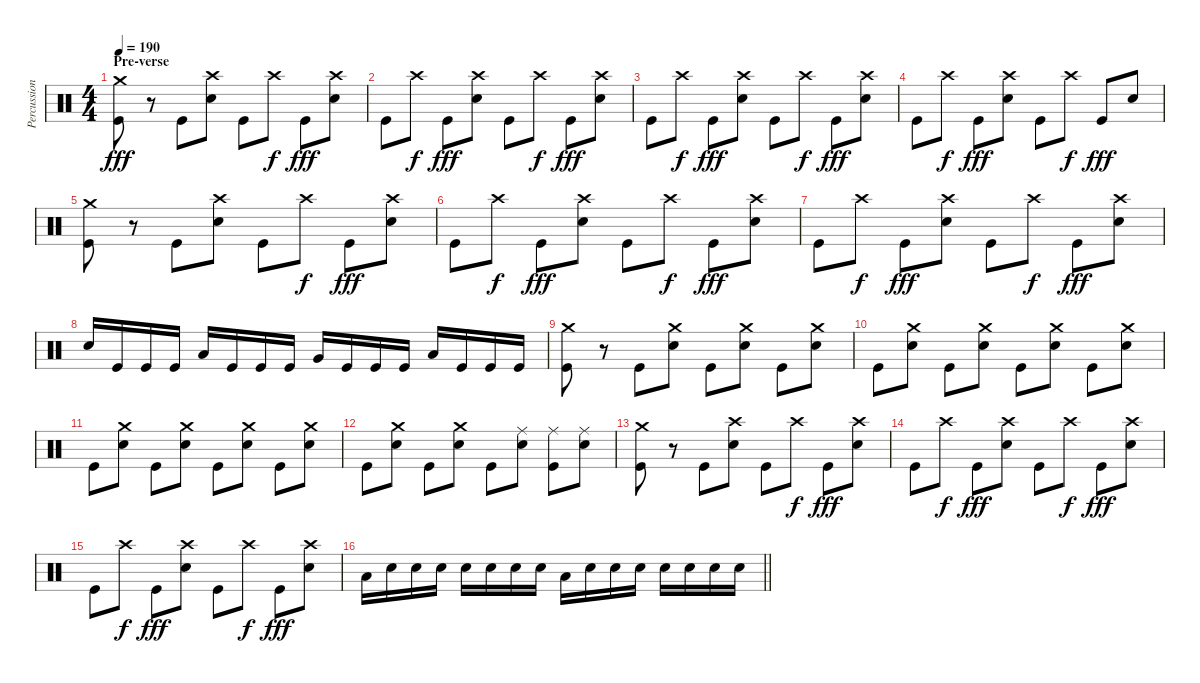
\track ("Percussioni" "Percussion") {instrument percussion}
\staff {score}
\articulation defaults
\ts (4 4)
\section ("" "Pre-verse")
\tempo 190
\clef neutral
\ks c
("Crash medium (hit)" "Kick (hit)").8{dy fff} r.8 "Kick (hit)".8 ("Crash high (hit)" "Snare (hit) 2").8 "Kick (hit)".8 "Crash high (hit)".8{dy f} "Kick (hit)".8{dy fff} ("Crash high (hit)" "Snare (hit) 2").8 |
"Kick (hit)".8 "Crash high (hit)".8{dy f} "Kick (hit)".8{dy fff} ("Crash high (hit)" "Snare (hit) 2").8 "Kick (hit)".8 "Crash high (hit)".8{dy f} "Kick (hit)".8{dy fff} ("Crash high (hit)" "Snare (hit) 2").8 |
"Kick (hit)".8 "Crash high (hit)".8{dy f} "Kick (hit)".8{dy fff} ("Crash high (hit)" "Snare (hit) 2").8 "Kick (hit)".8 "Crash high (hit)".8{dy f} "Kick (hit)".8{dy fff} ("Crash high (hit)" "Snare (hit) 2").8 |
"Kick (hit)".8 "Crash high (hit)".8{dy f} "Kick (hit)".8{dy fff} ("Crash high (hit)" "Snare (hit) 2").8 "Kick (hit)".8 "Crash high (hit)".8{dy f} "Kick (hit)".8{dy fff} "Snare (hit) 2".8 |
("Crash medium (hit)" "Kick (hit)").8 r.8 "Kick (hit)".8 ("Crash high (hit)" "Snare (hit) 2").8 "Kick (hit)".8 "Crash high (hit)".8{dy f} "Kick (hit)".8{dy fff} ("Crash high (hit)" "Snare (hit) 2").8 |
"Kick (hit)".8 "Crash high (hit)".8{dy f} "Kick (hit)".8{dy fff} ("Crash high (hit)" "Snare (hit) 2").8 "Kick (hit)".8 "Crash high (hit)".8{dy f} "Kick (hit)".8{dy fff} ("Crash high (hit)" "Snare (hit) 2").8 |
"Kick (hit)".8 "Crash high (hit)".8{dy f} "Kick (hit)".8{dy fff} ("Crash high (hit)" "Snare (hit) 2").8 "Kick (hit)".8 "Crash high (hit)".8{dy f} "Kick (hit)".8{dy fff} ("Crash high (hit)" "Snare (hit) 2").8 |
"Snare (hit) 2".16 "Kick (hit)".16 "Kick (hit)".16 "Kick (hit)".16 "Low Tom (hit)".16 "Kick (hit)".16 "Kick (hit)".16 "Kick (hit)".16 "Very Low Tom (hit)".16 "Kick (hit)".16 "Kick (hit)".16 "Kick (hit)".16 "Low Floor Tom (hit)".16 "Kick (hit)".16 "Kick (hit)".16 "Kick (hit)".16 |
("Crash medium (hit)" "Kick (hit)").8 r.8 "Kick (hit)".8 ("Crash medium (hit)" "Snare (hit) 2").8 "Kick (hit)".8 ("Crash medium (hit)" "Snare (hit) 2").8 "Kick (hit)".8 ("Crash medium (hit)" "Snare (hit) 2").8 |
"Kick (hit)".8 ("Crash medium (hit)" "Snare (hit) 2").8 "Kick (hit)".8 ("Crash medium (hit)" "Snare (hit) 2").8 "Kick (hit)".8 ("Crash medium (hit)" "Snare (hit) 2").8 "Kick (hit)".8 ("Crash medium (hit)" "Snare (hit) 2").8 |
"Kick (hit)".8 ("Crash medium (hit)" "Snare (hit) 2").8 "Kick (hit)".8 ("Crash medium (hit)" "Snare (hit) 2").8 "Kick (hit)".8 ("Crash medium (hit)" "Snare (hit) 2").8 "Kick (hit)".8 ("Crash medium (hit)" "Snare (hit) 2").8 |
"Kick (hit)".8 ("Crash medium (hit)" "Snare (hit) 2").8 "Kick (hit)".8 ("Crash medium (hit)" "Snare (hit) 2").8 "Kick (hit)".8 ("Ride (middle)" "Snare (hit) 2").8 ("Ride (middle)" "Kick (hit)").8 ("Ride (middle)" "Snare (hit) 2").8 |
("Crash medium (hit)" "Kick (hit)").8 r.8 "Kick (hit)".8 ("Crash high (hit)" "Snare (hit) 2").8 "Kick (hit)".8 "Crash high (hit)".8{dy f} "Kick (hit)".8{dy fff} ("Crash high (hit)" "Snare (hit) 2").8 |
"Kick (hit)".8 "Crash high (hit)".8{dy f} "Kick (hit)".8{dy fff} ("Crash high (hit)" "Snare (hit) 2").8 "Kick (hit)".8 "Crash high (hit)".8{dy f} "Kick (hit)".8{dy fff} ("Crash high (hit)" "Snare (hit) 2").8 |
"Kick (hit)".8 "Crash high (hit)".8{dy f} "Kick (hit)".8{dy fff} ("Crash high (hit)" "Snare (hit) 2").8 "Kick (hit)".8 "Crash high (hit)".8{dy f} "Kick (hit)".8{dy fff} ("Crash high (hit)" "Snare (hit) 2").8 |
\barLineRight lightlight "Low Tom (hit)".16 "Snare (hit) 2".16 "Snare (hit) 2".16 "Snare (hit) 2".16 "Snare (hit) 2".16 "Snare (hit) 2".16 "Snare (hit) 2".16 "Snare (hit) 2".16 "Low Tom (hit)".16 "Snare (hit) 2".16 "Snare (hit) 2".16 "Snare (hit) 2".16 "Snare (hit) 2".16 "Snare (hit) 2".16 "Snare (hit) 2".16 "Snare (hit) 2".16
